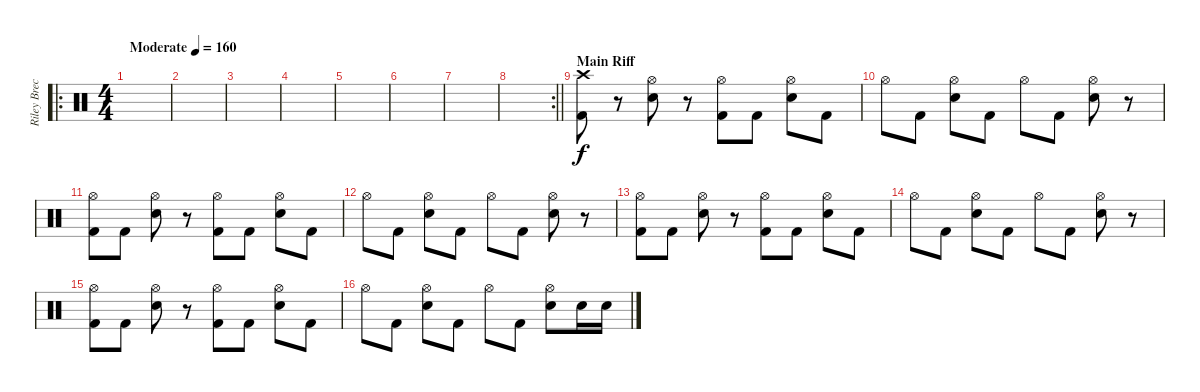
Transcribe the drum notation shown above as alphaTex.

\track ("Riley Breckenridge" "Riley Brec") {instrument percussion}
\staff {score}
\articulation defaults
\ro
\ts (4 4)
\tempo (160 "Moderate")
\clef neutral
\ks c
|
|
|
|
|
|
|
\rc 2
\barLineRight lightlight
|
\section ("" "Main Riff")
("Kick (hit) 2" "Crash high (hit)").8 r.8 ("Electric Snare (hit)" "Hi-Hat (open)").8 r.8 ("Kick (hit) 2" "Hi-Hat (open)").8 "Kick (hit) 2".8 ("Electric Snare (hit)" "Hi-Hat (open)").8 "Kick (hit) 2".8 |
"Hi-Hat (open)".8 "Kick (hit) 2".8 ("Electric Snare (hit)" "Hi-Hat (open)").8 "Kick (hit) 2".8 "Hi-Hat (open)".8 "Kick (hit) 2".8 ("Electric Snare (hit)" "Hi-Hat (open)").8 r.8 |
("Kick (hit) 2" "Hi-Hat (open)").8 "Kick (hit) 2".8 ("Electric Snare (hit)" "Hi-Hat (open)").8 r.8 ("Kick (hit) 2" "Hi-Hat (open)").8 "Kick (hit) 2".8 ("Electric Snare (hit)" "Hi-Hat (open)").8 "Kick (hit) 2".8 |
"Hi-Hat (open)".8 "Kick (hit) 2".8 ("Electric Snare (hit)" "Hi-Hat (open)").8 "Kick (hit) 2".8 "Hi-Hat (open)".8 "Kick (hit) 2".8 ("Electric Snare (hit)" "Hi-Hat (open)").8 r.8 |
("Kick (hit) 2" "Hi-Hat (open)").8 "Kick (hit) 2".8 ("Electric Snare (hit)" "Hi-Hat (open)").8 r.8 ("Kick (hit) 2" "Hi-Hat (open)").8 "Kick (hit) 2".8 ("Electric Snare (hit)" "Hi-Hat (open)").8 "Kick (hit) 2".8 |
"Hi-Hat (open)".8 "Kick (hit) 2".8 ("Electric Snare (hit)" "Hi-Hat (open)").8 "Kick (hit) 2".8 "Hi-Hat (open)".8 "Kick (hit) 2".8 ("Electric Snare (hit)" "Hi-Hat (open)").8 r.8 |
("Kick (hit) 2" "Hi-Hat (open)").8 "Kick (hit) 2".8 ("Electric Snare (hit)" "Hi-Hat (open)").8 r.8 ("Kick (hit) 2" "Hi-Hat (open)").8 "Kick (hit) 2".8 ("Electric Snare (hit)" "Hi-Hat (open)").8 "Kick (hit) 2".8 |
"Hi-Hat (open)".8 "Kick (hit) 2".8 ("Electric Snare (hit)" "Hi-Hat (open)").8 "Kick (hit) 2".8 "Hi-Hat (open)".8 "Kick (hit) 2".8 ("Electric Snare (hit)" "Hi-Hat (open)").8 "Electric Snare (hit)".16 "Electric Snare (hit)".16
